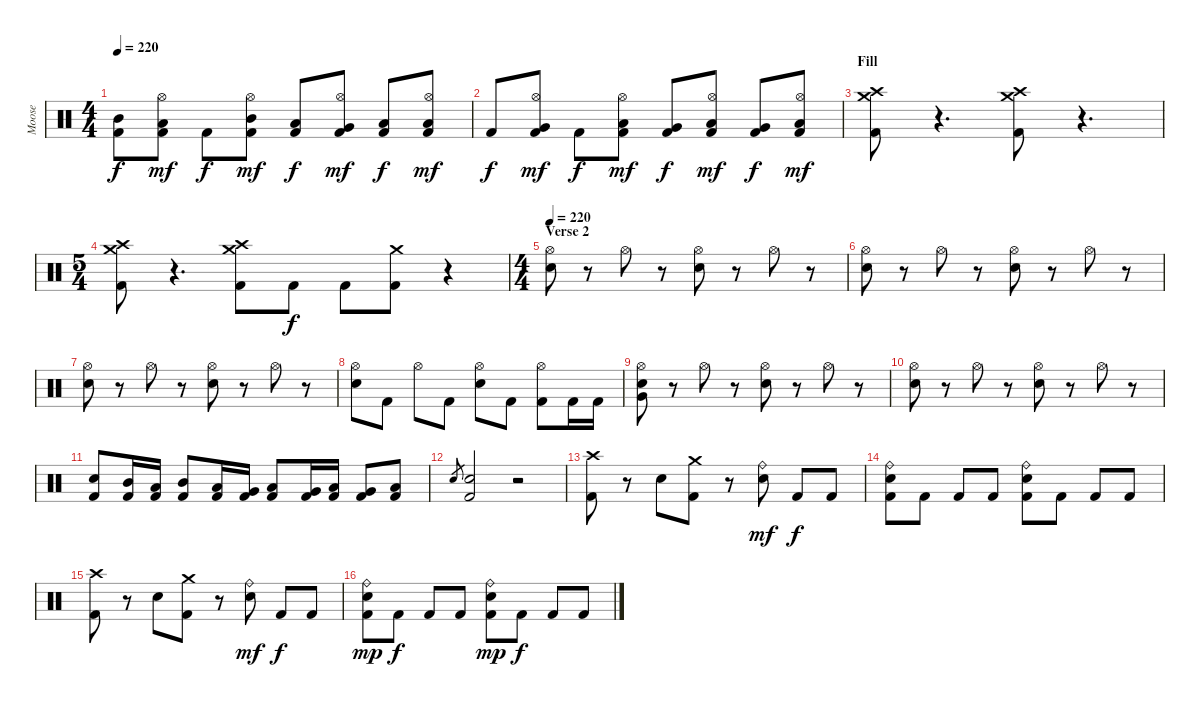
\track ("Moose" "Moose") {instrument percussion}
\staff {score}
\articulation defaults
\ts (4 4)
\tempo 220
\clef neutral
\ks c
("Kick (hit) 2" "Mid Tom (hit)").8{dy f} ("Kick (hit) 2" "Low Tom (hit)" "Hi-Hat (open)").8{dy mf} "Kick (hit) 2".8{dy f} ("Kick (hit) 2" "Mid Tom (hit)" "Hi-Hat (open)").8{dy mf} ("Kick (hit) 2" "Low Tom (hit)").8{dy f} ("Kick (hit) 2" "Very Low Tom (hit)" "Hi-Hat (open)").8{dy mf} ("Kick (hit) 2" "Low Floor Tom (hit)").8{dy f} ("Kick (hit) 2" "Low Floor Tom (hit)" "Hi-Hat (open)").8{dy mf} |
"Kick (hit) 2".8{dy f} ("Kick (hit) 2" "Very Low Tom (hit)" "Hi-Hat (open)").8{dy mf} "Kick (hit) 2".8{dy f} ("Kick (hit) 2" "Low Tom (hit)" "Hi-Hat (open)").8{dy mf} ("Kick (hit) 2" "Very Low Tom (hit)").8{dy f} ("Kick (hit) 2" "Low Floor Tom (hit)" "Hi-Hat (open)").8{dy mf} ("Kick (hit) 2" "Very Low Tom (hit)").8{dy f} ("Kick (hit) 2" "Low Floor Tom (hit)" "Hi-Hat (open)").8{dy mf} |
\section ("" "Fill")
("Kick (hit) 2" "Crash high (hit)" "Crash medium (hit)").8 r.4{d} ("Kick (hit) 2" "Crash high (hit)" "Crash medium (hit)").8 r.4{d} |
\ts (5 4)
("Kick (hit) 2" "Crash high (hit)" "Crash medium (hit)").8 r.4{d} ("Kick (hit) 2" "Crash high (hit)" "Crash medium (hit)").8 "Kick (hit) 2".8{dy f} "Kick (hit) 2".8 ("Kick (hit) 2" "Crash medium (hit)").8 r.4 |
\ts (4 4)
\section ("" "Verse 2")
\tempo 220
("Snare (hit) 2" "Hi-Hat (open)").8 r.8 "Hi-Hat (open)".8 r.8 ("Snare (hit) 2" "Hi-Hat (open)").8 r.8 "Hi-Hat (open)".8 r.8 |
("Snare (hit) 2" "Hi-Hat (open)").8 r.8 "Hi-Hat (open)".8 r.8 ("Snare (hit) 2" "Hi-Hat (open)").8 r.8 "Hi-Hat (open)".8 r.8 |
("Snare (hit) 2" "Hi-Hat (open)").8 r.8 "Hi-Hat (open)".8 r.8 ("Snare (hit) 2" "Hi-Hat (open)").8 r.8 "Hi-Hat (open)".8 r.8 |
("Snare (hit) 2" "Hi-Hat (open)").8 "Kick (hit) 2".8 "Hi-Hat (open)".8 "Kick (hit) 2".8 ("Snare (hit) 2" "Hi-Hat (open)").8 "Kick (hit) 2".8 ("Kick (hit) 2" "Hi-Hat (open)").8 "Kick (hit) 2".16 "Kick (hit) 2".16 |
("Very Low Tom (hit)" "Snare (hit) 2" "Hi-Hat (open)").8 r.8 "Hi-Hat (open)".8 r.8 ("Snare (hit) 2" "Hi-Hat (open)").8 r.8 "Hi-Hat (open)".8 r.8 |
("Snare (hit) 2" "Hi-Hat (open)").8 r.8 "Hi-Hat (open)".8 r.8 ("Snare (hit) 2" "Hi-Hat (open)").8 r.8 "Hi-Hat (open)".8 r.8 |
("Kick (hit) 2" "Snare (hit) 2").8 ("Kick (hit) 2" "Mid Tom (hit)").16 ("Kick (hit) 2" "Low Tom (hit)").16 ("Kick (hit) 2" "Mid Tom (hit)").8 ("Kick (hit) 2" "Low Tom (hit)").16 ("Kick (hit) 2" "Very Low Tom (hit)").16 ("Kick (hit) 2" "Low Floor Tom (hit)").8 ("Kick (hit) 2" "Very Low Tom (hit)").16 ("Kick (hit) 2" "Low Floor Tom (hit)").16 ("Kick (hit) 2" "Very Low Tom (hit)").8 ("Kick (hit) 2" "Low Floor Tom (hit)").8 |
"Snare (hit) 2".8{gr} ("Kick (hit) 2" "Snare (hit) 2").2 r.2 |
("Kick (hit) 2" "Crash high (hit)").8 r.8 "Snare (hit) 2".8 ("Kick (hit) 2" "Crash medium (hit)").8 r.8 ("Snare (hit) 2" "Ride (bell)").8{dy mf} "Kick (hit) 2".8{dy f} "Kick (hit) 2".8 |
("Kick (hit) 2" "Snare (hit) 2" "Ride (bell)").8 "Kick (hit) 2".8 "Kick (hit) 2".8 "Kick (hit) 2".8 ("Kick (hit) 2" "Snare (hit) 2" "Ride (bell)").8 "Kick (hit) 2".8 "Kick (hit) 2".8 "Kick (hit) 2".8 |
("Kick (hit) 2" "Crash high (hit)").8 r.8 "Snare (hit) 2".8 ("Kick (hit) 2" "Crash medium (hit)").8 r.8 ("Snare (hit) 2" "Ride (bell)").8{dy mf} "Kick (hit) 2".8{dy f} "Kick (hit) 2".8 |
("Kick (hit) 2" "Snare (hit) 2" "Ride (bell)").8{dy mp} "Kick (hit) 2".8{dy f} "Kick (hit) 2".8 "Kick (hit) 2".8 ("Kick (hit) 2" "Snare (hit) 2" "Ride (bell)").8{dy mp} "Kick (hit) 2".8{dy f} "Kick (hit) 2".8 "Kick (hit) 2".8
